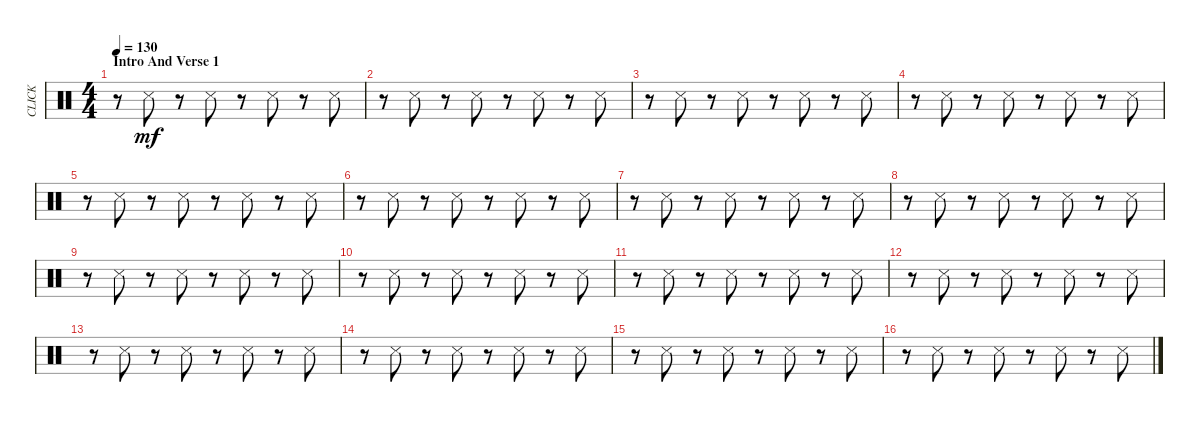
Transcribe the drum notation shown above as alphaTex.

\track ("CLICK" "CLICK") {instrument percussion}
\staff {score}
\articulation defaults
\ts (4 4)
\section ("" "Intro And Verse 1")
\tempo 130
\clef neutral
\ks c
r.8{dy mf} "Snare (side stick) 3".8 r.8 "Snare (side stick) 3".8 r.8 "Snare (side stick) 3".8 r.8 "Snare (side stick) 3".8 |
r.8 "Snare (side stick) 3".8 r.8 "Snare (side stick) 3".8 r.8 "Snare (side stick) 3".8 r.8 "Snare (side stick) 3".8 |
r.8 "Snare (side stick) 3".8 r.8 "Snare (side stick) 3".8 r.8 "Snare (side stick) 3".8 r.8 "Snare (side stick) 3".8 |
r.8 "Snare (side stick) 3".8 r.8 "Snare (side stick) 3".8 r.8 "Snare (side stick) 3".8 r.8 "Snare (side stick) 3".8 |
r.8 "Snare (side stick) 3".8 r.8 "Snare (side stick) 3".8 r.8 "Snare (side stick) 3".8 r.8 "Snare (side stick) 3".8 |
r.8 "Snare (side stick) 3".8 r.8 "Snare (side stick) 3".8 r.8 "Snare (side stick) 3".8 r.8 "Snare (side stick) 3".8 |
r.8 "Snare (side stick) 3".8 r.8 "Snare (side stick) 3".8 r.8 "Snare (side stick) 3".8 r.8 "Snare (side stick) 3".8 |
r.8 "Snare (side stick) 3".8 r.8 "Snare (side stick) 3".8 r.8 "Snare (side stick) 3".8 r.8 "Snare (side stick) 3".8 |
r.8 "Snare (side stick) 3".8 r.8 "Snare (side stick) 3".8 r.8 "Snare (side stick) 3".8 r.8 "Snare (side stick) 3".8 |
r.8 "Snare (side stick) 3".8 r.8 "Snare (side stick) 3".8 r.8 "Snare (side stick) 3".8 r.8 "Snare (side stick) 3".8 |
r.8 "Snare (side stick) 3".8 r.8 "Snare (side stick) 3".8 r.8 "Snare (side stick) 3".8 r.8 "Snare (side stick) 3".8 |
r.8 "Snare (side stick) 3".8 r.8 "Snare (side stick) 3".8 r.8 "Snare (side stick) 3".8 r.8 "Snare (side stick) 3".8 |
r.8 "Snare (side stick) 3".8 r.8 "Snare (side stick) 3".8 r.8 "Snare (side stick) 3".8 r.8 "Snare (side stick) 3".8 |
r.8 "Snare (side stick) 3".8 r.8 "Snare (side stick) 3".8 r.8 "Snare (side stick) 3".8 r.8 "Snare (side stick) 3".8 |
r.8 "Snare (side stick) 3".8 r.8 "Snare (side stick) 3".8 r.8 "Snare (side stick) 3".8 r.8 "Snare (side stick) 3".8 |
r.8 "Snare (side stick) 3".8 r.8 "Snare (side stick) 3".8 r.8 "Snare (side stick) 3".8 r.8 "Snare (side stick) 3".8
